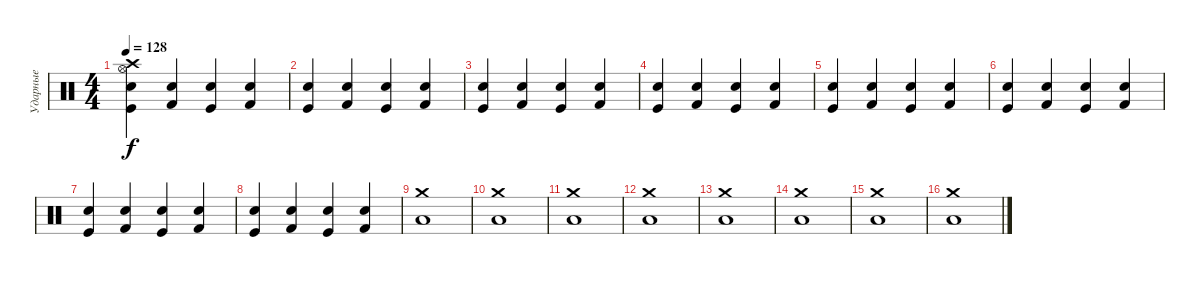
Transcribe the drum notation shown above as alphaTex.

\track ("Ударные" "Ударные") {instrument percussion}
\staff {score}
\articulation defaults
\ts (4 4)
\tempo 128
\clef neutral
\ks c
("Kick (hit)" "Electric Snare (hit)" "Crash high (hit)" "Hi-Hat (open)").4{dy f} ("Kick (hit) 2" "Snare (hit) 2").4 ("Kick (hit)" "Electric Snare (hit)").4 ("Kick (hit) 2" "Snare (hit) 2").4 |
("Kick (hit)" "Electric Snare (hit)").4 ("Kick (hit) 2" "Snare (hit) 2").4 ("Kick (hit)" "Electric Snare (hit)").4 ("Kick (hit) 2" "Snare (hit) 2").4 |
("Kick (hit)" "Electric Snare (hit)").4 ("Kick (hit) 2" "Snare (hit) 2").4 ("Kick (hit)" "Electric Snare (hit)").4 ("Kick (hit) 2" "Snare (hit) 2").4 |
("Kick (hit)" "Electric Snare (hit)").4 ("Kick (hit) 2" "Snare (hit) 2").4 ("Kick (hit)" "Electric Snare (hit)").4 ("Kick (hit) 2" "Snare (hit) 2").4 |
("Kick (hit)" "Electric Snare (hit)").4 ("Kick (hit) 2" "Snare (hit) 2").4 ("Kick (hit)" "Electric Snare (hit)").4 ("Kick (hit) 2" "Snare (hit) 2").4 |
("Kick (hit)" "Electric Snare (hit)").4 ("Kick (hit) 2" "Snare (hit) 2").4 ("Kick (hit)" "Electric Snare (hit)").4 ("Kick (hit) 2" "Snare (hit) 2").4 |
("Kick (hit)" "Electric Snare (hit)").4 ("Kick (hit) 2" "Snare (hit) 2").4 ("Kick (hit)" "Electric Snare (hit)").4 ("Kick (hit) 2" "Snare (hit) 2").4 |
("Kick (hit)" "Electric Snare (hit)").4 ("Kick (hit) 2" "Snare (hit) 2").4 ("Kick (hit)" "Electric Snare (hit)").4 ("Kick (hit) 2" "Snare (hit) 2").4 |
("Crash medium (hit)" "Low Floor Tom (hit)").1 |
("Crash medium (hit)" "Low Floor Tom (hit)").1 |
("Crash medium (hit)" "Low Floor Tom (hit)").1 |
("Crash medium (hit)" "Low Floor Tom (hit)").1 |
("Crash medium (hit)" "Low Floor Tom (hit)").1 |
("Crash medium (hit)" "Low Floor Tom (hit)").1 |
("Crash medium (hit)" "Low Floor Tom (hit)").1 |
("Crash medium (hit)" "Low Floor Tom (hit)").1
